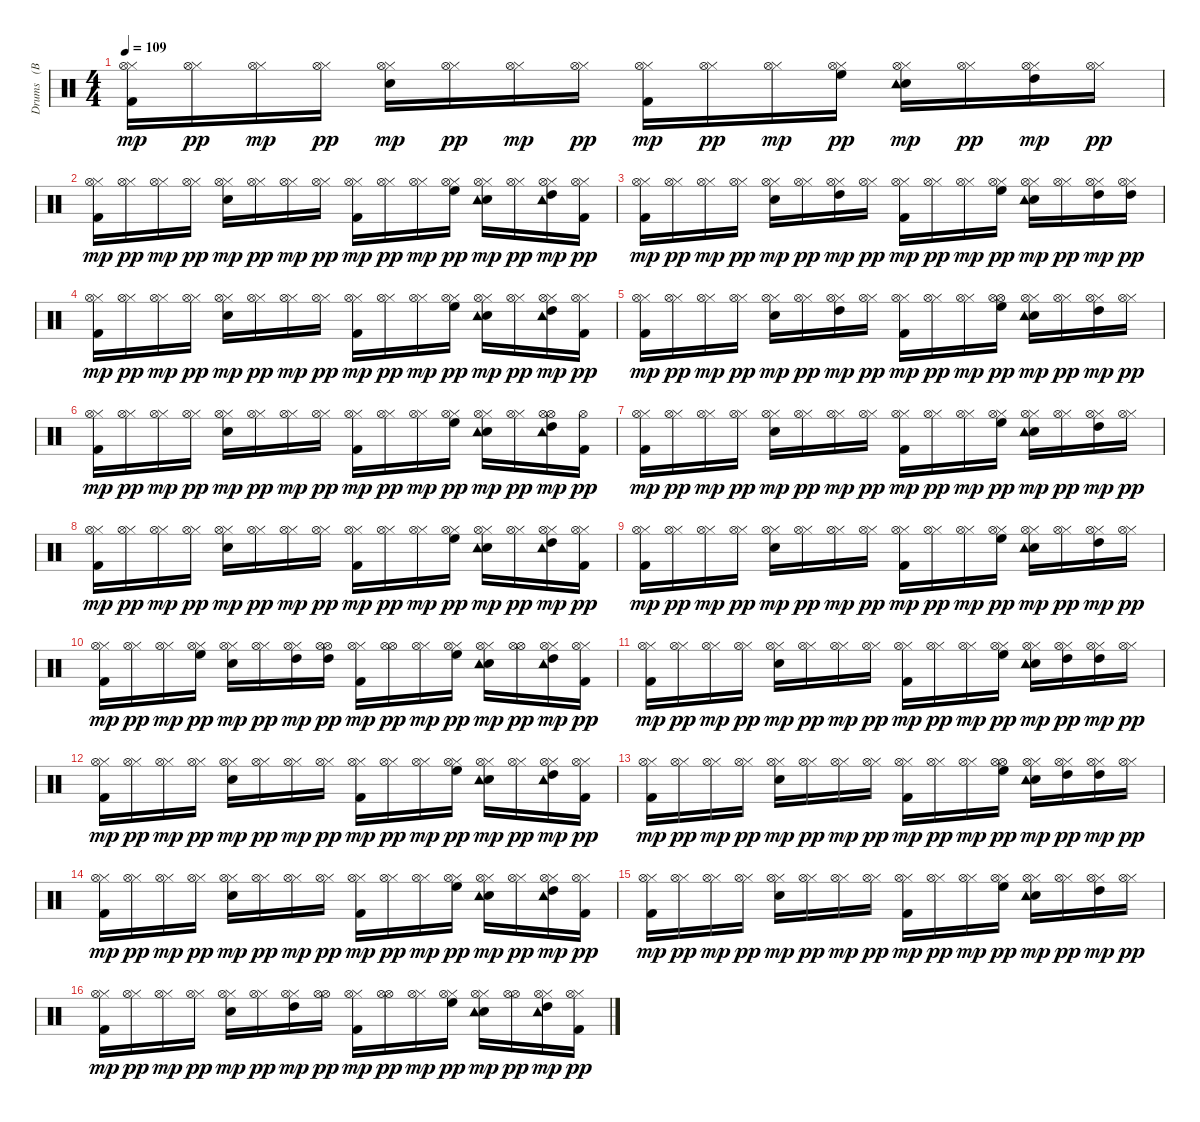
\track ("Drums   (BB)" "Drums   (B") {instrument percussion}
\staff {score}
\articulation defaults
\ts (4 4)
\tempo 109
\clef neutral
\ks c
("Kick (hit) 2" "Hi-Hat (closed)" "Hi-Hat (open)").16{dy mp} ("Hi-Hat (closed)" "Hi-Hat (open)").16{dy pp} ("Hi-Hat (closed)" "Hi-Hat (open)").16{dy mp} ("Hi-Hat (closed)" "Hi-Hat (open)").16{dy pp} ("Snare (hit) 2" "Hi-Hat (closed)" "Hi-Hat (open)").16{dy mp} ("Hi-Hat (closed)" "Hi-Hat (open)").16{dy pp} ("Hi-Hat (closed)" "Hi-Hat (open)").16{dy mp} ("Hi-Hat (closed)" "Hi-Hat (open)").16{dy pp} ("Kick (hit) 2" "Hi-Hat (closed)" "Hi-Hat (open)").16{dy mp} ("Hi-Hat (closed)" "Hi-Hat (open)").16{dy pp} ("Hi-Hat (closed)" "Hi-Hat (open)").16{dy mp} ("Hi-Hat (closed)" "High Floor Tom (hit)" "Hi-Hat (open)").16{dy pp} ("Snare (hit) 2" "Hi-Hat (closed)" "Tambourine (hit)" "Hi-Hat (open)").16{dy mp} ("Hi-Hat (closed)" "Hi-Hat (open)").16{dy pp} ("Hi-Hat (closed)" "High Tom (hit)" "Hi-Hat (open)").16{dy mp} ("Hi-Hat (closed)" "Hi-Hat (open)").16{dy pp} |
("Kick (hit) 2" "Hi-Hat (closed)" "Hi-Hat (open)").16{dy mp} ("Hi-Hat (closed)" "Hi-Hat (open)").16{dy pp} ("Hi-Hat (closed)" "Hi-Hat (open)").16{dy mp} ("Hi-Hat (closed)" "Hi-Hat (open)").16{dy pp} ("Snare (hit) 2" "Hi-Hat (closed)" "Hi-Hat (open)").16{dy mp} ("Hi-Hat (closed)" "Hi-Hat (open)").16{dy pp} ("Hi-Hat (closed)" "Hi-Hat (open)").16{dy mp} ("Hi-Hat (closed)" "Hi-Hat (open)").16{dy pp} ("Kick (hit) 2" "Hi-Hat (closed)" "Hi-Hat (open)").16{dy mp} ("Hi-Hat (closed)" "Hi-Hat (open)").16{dy pp} ("Hi-Hat (closed)" "Hi-Hat (open)").16{dy mp} ("Hi-Hat (closed)" "High Floor Tom (hit)" "Hi-Hat (open)").16{dy pp} ("Snare (hit) 2" "Hi-Hat (closed)" "Tambourine (hit)" "Hi-Hat (open)").16{dy mp} ("Hi-Hat (closed)" "Hi-Hat (open)").16{dy pp} ("Hi-Hat (closed)" "High Tom (hit)" "Tambourine (hit)" "Hi-Hat (open)").16{dy mp} ("Kick (hit) 2" "Hi-Hat (closed)" "Hi-Hat (open)").16{dy pp} |
("Kick (hit) 2" "Hi-Hat (closed)" "Hi-Hat (open)").16{dy mp} ("Hi-Hat (closed)" "Hi-Hat (open)").16{dy pp} ("Hi-Hat (closed)" "Hi-Hat (open)").16{dy mp} ("Hi-Hat (closed)" "Hi-Hat (open)").16{dy pp} ("Snare (hit) 2" "Hi-Hat (closed)" "Hi-Hat (open)").16{dy mp} ("Hi-Hat (closed)" "Hi-Hat (open)").16{dy pp} ("Hi-Hat (closed)" "High Tom (hit)" "Hi-Hat (open)").16{dy mp} ("Hi-Hat (closed)" "Hi-Hat (open)").16{dy pp} ("Kick (hit) 2" "Hi-Hat (closed)" "Hi-Hat (open)").16{dy mp} ("Hi-Hat (closed)" "Hi-Hat (open)").16{dy pp} ("Hi-Hat (closed)" "Hi-Hat (open)").16{dy mp} ("Hi-Hat (closed)" "High Floor Tom (hit)" "Hi-Hat (open)").16{dy pp} ("Snare (hit) 2" "Hi-Hat (closed)" "Tambourine (hit)" "Hi-Hat (open)").16{dy mp} ("Hi-Hat (closed)" "Hi-Hat (open)").16{dy pp} ("Hi-Hat (closed)" "High Tom (hit)" "Hi-Hat (open)").16{dy mp} ("Hi-Hat (closed)" "High Tom (hit)" "Hi-Hat (open)").16{dy pp} |
("Kick (hit) 2" "Hi-Hat (closed)" "Hi-Hat (open)").16{dy mp} ("Hi-Hat (closed)" "Hi-Hat (open)").16{dy pp} ("Hi-Hat (closed)" "Hi-Hat (open)").16{dy mp} ("Hi-Hat (closed)" "Hi-Hat (open)").16{dy pp} ("Snare (hit) 2" "Hi-Hat (closed)" "Hi-Hat (open)").16{dy mp} ("Hi-Hat (closed)" "Hi-Hat (open)").16{dy pp} ("Hi-Hat (closed)" "Hi-Hat (open)").16{dy mp} ("Hi-Hat (closed)" "Hi-Hat (open)").16{dy pp} ("Kick (hit) 2" "Hi-Hat (closed)" "Hi-Hat (open)").16{dy mp} ("Hi-Hat (closed)" "Hi-Hat (open)").16{dy pp} ("Hi-Hat (closed)" "Hi-Hat (open)").16{dy mp} ("Hi-Hat (closed)" "High Floor Tom (hit)" "Hi-Hat (open)").16{dy pp} ("Snare (hit) 2" "Hi-Hat (closed)" "Tambourine (hit)" "Hi-Hat (open)").16{dy mp} ("Hi-Hat (closed)" "Hi-Hat (open)").16{dy pp} ("Hi-Hat (closed)" "High Tom (hit)" "Tambourine (hit)" "Hi-Hat (open)").16{dy mp} ("Kick (hit) 2" "Hi-Hat (closed)" "Hi-Hat (open)").16{dy pp} |
("Kick (hit) 2" "Hi-Hat (closed)" "Hi-Hat (open)").16{dy mp} ("Hi-Hat (closed)" "Hi-Hat (open)").16{dy pp} ("Hi-Hat (closed)" "Hi-Hat (open)").16{dy mp} ("Hi-Hat (closed)" "Hi-Hat (open)").16{dy pp} ("Snare (hit) 2" "Hi-Hat (closed)" "Hi-Hat (open)").16{dy mp} ("Hi-Hat (closed)" "Hi-Hat (open)").16{dy pp} ("Hi-Hat (closed)" "High Tom (hit)" "Hi-Hat (open)").16{dy mp} ("Hi-Hat (closed)" "Hi-Hat (open)").16{dy pp} ("Kick (hit) 2" "Hi-Hat (closed)" "Hi-Hat (open)").16{dy mp} ("Hi-Hat (closed)" "Hi-Hat (open)").16{dy pp} ("Hi-Hat (closed)" "Hi-Hat (open)").16{dy mp} ("Hi-Hat (open)" "High Floor Tom (hit)" "Hi-Hat (open)").16{dy pp} ("Snare (hit) 2" "Hi-Hat (closed)" "Tambourine (hit)" "Hi-Hat (open)").16{dy mp} ("Hi-Hat (closed)" "Hi-Hat (open)").16{dy pp} ("Hi-Hat (closed)" "High Tom (hit)" "Hi-Hat (open)").16{dy mp} ("Hi-Hat (closed)" "Hi-Hat (open)").16{dy pp} |
("Kick (hit) 2" "Hi-Hat (closed)" "Hi-Hat (open)").16{dy mp} ("Hi-Hat (closed)" "Hi-Hat (open)").16{dy pp} ("Hi-Hat (closed)" "Hi-Hat (open)").16{dy mp} ("Hi-Hat (closed)" "Hi-Hat (open)").16{dy pp} ("Snare (hit) 2" "Hi-Hat (closed)" "Hi-Hat (open)").16{dy mp} ("Hi-Hat (closed)" "Hi-Hat (open)").16{dy pp} ("Hi-Hat (closed)" "Hi-Hat (open)").16{dy mp} ("Hi-Hat (closed)" "Hi-Hat (open)").16{dy pp} ("Kick (hit) 2" "Hi-Hat (closed)" "Hi-Hat (open)").16{dy mp} ("Hi-Hat (closed)" "Hi-Hat (open)").16{dy pp} ("Hi-Hat (closed)" "Hi-Hat (open)").16{dy mp} ("Hi-Hat (closed)" "High Floor Tom (hit)" "Hi-Hat (open)").16{dy pp} ("Snare (hit) 2" "Hi-Hat (closed)" "Tambourine (hit)" "Hi-Hat (open)").16{dy mp} ("Hi-Hat (closed)" "Hi-Hat (open)").16{dy pp} ("Hi-Hat (open)" "High Tom (hit)" "Tambourine (hit)" "Hi-Hat (open)").16{dy mp} ("Kick (hit) 2" "Hi-Hat (open)").16{dy pp} |
("Kick (hit) 2" "Hi-Hat (closed)" "Hi-Hat (open)").16{dy mp} ("Hi-Hat (closed)" "Hi-Hat (open)").16{dy pp} ("Hi-Hat (closed)" "Hi-Hat (open)").16{dy mp} ("Hi-Hat (closed)" "Hi-Hat (open)").16{dy pp} ("Snare (hit) 2" "Hi-Hat (closed)" "Hi-Hat (open)").16{dy mp} ("Hi-Hat (closed)" "Hi-Hat (open)").16{dy pp} ("Hi-Hat (closed)" "Hi-Hat (open)").16{dy mp} ("Hi-Hat (closed)" "Hi-Hat (open)").16{dy pp} ("Kick (hit) 2" "Hi-Hat (closed)" "Hi-Hat (open)").16{dy mp} ("Hi-Hat (closed)" "Hi-Hat (open)").16{dy pp} ("Hi-Hat (closed)" "Hi-Hat (open)").16{dy mp} ("Hi-Hat (closed)" "High Floor Tom (hit)" "Hi-Hat (open)").16{dy pp} ("Snare (hit) 2" "Hi-Hat (closed)" "Tambourine (hit)" "Hi-Hat (open)").16{dy mp} ("Hi-Hat (closed)" "Hi-Hat (open)").16{dy pp} ("Hi-Hat (closed)" "High Tom (hit)" "Hi-Hat (open)").16{dy mp} ("Hi-Hat (closed)" "Hi-Hat (open)").16{dy pp} |
("Kick (hit) 2" "Hi-Hat (closed)" "Hi-Hat (open)").16{dy mp} ("Hi-Hat (closed)" "Hi-Hat (open)").16{dy pp} ("Hi-Hat (closed)" "Hi-Hat (open)").16{dy mp} ("Hi-Hat (closed)" "Hi-Hat (open)").16{dy pp} ("Snare (hit) 2" "Hi-Hat (closed)" "Hi-Hat (open)").16{dy mp} ("Hi-Hat (closed)" "Hi-Hat (open)").16{dy pp} ("Hi-Hat (closed)" "Hi-Hat (open)").16{dy mp} ("Hi-Hat (closed)" "Hi-Hat (open)").16{dy pp} ("Kick (hit) 2" "Hi-Hat (closed)" "Hi-Hat (open)").16{dy mp} ("Hi-Hat (closed)" "Hi-Hat (open)").16{dy pp} ("Hi-Hat (closed)" "Hi-Hat (open)").16{dy mp} ("Hi-Hat (closed)" "High Floor Tom (hit)" "Hi-Hat (open)").16{dy pp} ("Snare (hit) 2" "Hi-Hat (closed)" "Tambourine (hit)" "Hi-Hat (open)").16{dy mp} ("Hi-Hat (closed)" "Hi-Hat (open)").16{dy pp} ("Hi-Hat (closed)" "High Tom (hit)" "Tambourine (hit)" "Hi-Hat (open)").16{dy mp} ("Kick (hit) 2" "Hi-Hat (closed)" "Hi-Hat (open)").16{dy pp} |
("Kick (hit) 2" "Hi-Hat (closed)" "Hi-Hat (open)").16{dy mp} ("Hi-Hat (closed)" "Hi-Hat (open)").16{dy pp} ("Hi-Hat (closed)" "Hi-Hat (open)").16{dy mp} ("Hi-Hat (closed)" "Hi-Hat (open)").16{dy pp} ("Snare (hit) 2" "Hi-Hat (closed)" "Hi-Hat (open)").16{dy mp} ("Hi-Hat (closed)" "Hi-Hat (open)").16{dy pp} ("Hi-Hat (closed)" "Hi-Hat (open)").16{dy mp} ("Hi-Hat (closed)" "Hi-Hat (open)").16{dy pp} ("Kick (hit) 2" "Hi-Hat (closed)" "Hi-Hat (open)").16{dy mp} ("Hi-Hat (closed)" "Hi-Hat (open)").16{dy pp} ("Hi-Hat (closed)" "Hi-Hat (open)").16{dy mp} ("Hi-Hat (closed)" "High Floor Tom (hit)" "Hi-Hat (open)").16{dy pp} ("Snare (hit) 2" "Hi-Hat (closed)" "Tambourine (hit)" "Hi-Hat (open)").16{dy mp} ("Hi-Hat (closed)" "Hi-Hat (open)").16{dy pp} ("Hi-Hat (closed)" "High Tom (hit)" "Hi-Hat (open)").16{dy mp} ("Hi-Hat (closed)" "Hi-Hat (open)").16{dy pp} |
("Kick (hit) 2" "Hi-Hat (closed)" "Hi-Hat (open)").16{dy mp} ("Hi-Hat (closed)" "Hi-Hat (open)").16{dy pp} ("Hi-Hat (closed)" "Hi-Hat (open)").16{dy mp} ("Hi-Hat (closed)" "High Floor Tom (hit)" "Hi-Hat (open)").16{dy pp} ("Snare (hit) 2" "Hi-Hat (closed)" "Hi-Hat (open)").16{dy mp} ("Hi-Hat (closed)" "Hi-Hat (open)").16{dy pp} ("Hi-Hat (closed)" "High Tom (hit)" "Hi-Hat (open)").16{dy mp} ("Hi-Hat (open)" "High Tom (hit)" "Hi-Hat (open)").16{dy pp} ("Kick (hit) 2" "Hi-Hat (closed)" "Hi-Hat (open)").16{dy mp} ("Hi-Hat (open)" "Hi-Hat (open)").16{dy pp} ("Hi-Hat (closed)" "Hi-Hat (open)").16{dy mp} ("Hi-Hat (closed)" "High Floor Tom (hit)" "Hi-Hat (open)").16{dy pp} ("Snare (hit) 2" "Hi-Hat (closed)" "Tambourine (hit)" "Hi-Hat (open)").16{dy mp} ("Hi-Hat (open)" "Hi-Hat (open)").16{dy pp} ("Hi-Hat (closed)" "High Tom (hit)" "Tambourine (hit)" "Hi-Hat (open)").16{dy mp} ("Kick (hit) 2" "Hi-Hat (closed)" "Hi-Hat (open)").16{dy pp} |
("Kick (hit) 2" "Hi-Hat (closed)" "Hi-Hat (open)").16{dy mp} ("Hi-Hat (closed)" "Hi-Hat (open)").16{dy pp} ("Hi-Hat (closed)" "Hi-Hat (open)").16{dy mp} ("Hi-Hat (closed)" "Hi-Hat (open)").16{dy pp} ("Snare (hit) 2" "Hi-Hat (closed)" "Hi-Hat (open)").16{dy mp} ("Hi-Hat (closed)" "Hi-Hat (open)").16{dy pp} ("Hi-Hat (closed)" "Hi-Hat (open)").16{dy mp} ("Hi-Hat (closed)" "Hi-Hat (open)").16{dy pp} ("Kick (hit) 2" "Hi-Hat (closed)" "Hi-Hat (open)").16{dy mp} ("Hi-Hat (closed)" "Hi-Hat (open)").16{dy pp} ("Hi-Hat (closed)" "Hi-Hat (open)").16{dy mp} ("Hi-Hat (closed)" "High Floor Tom (hit)" "Hi-Hat (open)").16{dy pp} ("Snare (hit) 2" "Hi-Hat (closed)" "Tambourine (hit)" "Hi-Hat (open)").16{dy mp} ("Hi-Hat (closed)" "High Tom (hit)" "Hi-Hat (open)").16{dy pp} ("Hi-Hat (closed)" "High Tom (hit)" "Hi-Hat (open)").16{dy mp} ("Hi-Hat (closed)" "Hi-Hat (open)").16{dy pp} |
("Kick (hit) 2" "Hi-Hat (closed)" "Hi-Hat (open)").16{dy mp} ("Hi-Hat (closed)" "Hi-Hat (open)").16{dy pp} ("Hi-Hat (closed)" "Hi-Hat (open)").16{dy mp} ("Hi-Hat (closed)" "Hi-Hat (open)").16{dy pp} ("Snare (hit) 2" "Hi-Hat (closed)" "Hi-Hat (open)").16{dy mp} ("Hi-Hat (closed)" "Hi-Hat (open)").16{dy pp} ("Hi-Hat (closed)" "Hi-Hat (open)").16{dy mp} ("Hi-Hat (closed)" "Hi-Hat (open)").16{dy pp} ("Kick (hit) 2" "Hi-Hat (closed)" "Hi-Hat (open)").16{dy mp} ("Hi-Hat (closed)" "Hi-Hat (open)").16{dy pp} ("Hi-Hat (closed)" "Hi-Hat (open)").16{dy mp} ("Hi-Hat (closed)" "High Floor Tom (hit)" "Hi-Hat (open)").16{dy pp} ("Snare (hit) 2" "Hi-Hat (closed)" "Tambourine (hit)" "Hi-Hat (open)").16{dy mp} ("Hi-Hat (closed)" "Hi-Hat (open)").16{dy pp} ("Hi-Hat (closed)" "High Tom (hit)" "Tambourine (hit)" "Hi-Hat (open)").16{dy mp} ("Kick (hit) 2" "Hi-Hat (closed)" "Hi-Hat (open)").16{dy pp} |
("Kick (hit) 2" "Hi-Hat (closed)" "Hi-Hat (open)").16{dy mp} ("Hi-Hat (closed)" "Hi-Hat (open)").16{dy pp} ("Hi-Hat (closed)" "Hi-Hat (open)").16{dy mp} ("Hi-Hat (closed)" "Hi-Hat (open)").16{dy pp} ("Snare (hit) 2" "Hi-Hat (closed)" "Hi-Hat (open)").16{dy mp} ("Hi-Hat (closed)" "Hi-Hat (open)").16{dy pp} ("Hi-Hat (closed)" "Hi-Hat (open)").16{dy mp} ("Hi-Hat (closed)" "Hi-Hat (open)").16{dy pp} ("Kick (hit) 2" "Hi-Hat (closed)" "Hi-Hat (open)").16{dy mp} ("Hi-Hat (closed)" "Hi-Hat (open)").16{dy pp} ("Hi-Hat (closed)" "Hi-Hat (open)").16{dy mp} ("Hi-Hat (open)" "High Floor Tom (hit)" "Hi-Hat (open)").16{dy pp} ("Snare (hit) 2" "Hi-Hat (closed)" "Tambourine (hit)" "Hi-Hat (open)").16{dy mp} ("Hi-Hat (closed)" "High Tom (hit)" "Hi-Hat (open)").16{dy pp} ("Hi-Hat (closed)" "High Tom (hit)" "Hi-Hat (open)").16{dy mp} ("Hi-Hat (closed)" "Hi-Hat (open)").16{dy pp} |
("Kick (hit) 2" "Hi-Hat (closed)" "Hi-Hat (open)").16{dy mp} ("Hi-Hat (closed)" "Hi-Hat (open)").16{dy pp} ("Hi-Hat (closed)" "Hi-Hat (open)").16{dy mp} ("Hi-Hat (closed)" "Hi-Hat (open)").16{dy pp} ("Snare (hit) 2" "Hi-Hat (closed)" "Hi-Hat (open)").16{dy mp} ("Hi-Hat (closed)" "Hi-Hat (open)").16{dy pp} ("Hi-Hat (closed)" "Hi-Hat (open)").16{dy mp} ("Hi-Hat (closed)" "Hi-Hat (open)").16{dy pp} ("Kick (hit) 2" "Hi-Hat (closed)" "Hi-Hat (open)").16{dy mp} ("Hi-Hat (closed)" "Hi-Hat (open)").16{dy pp} ("Hi-Hat (closed)" "Hi-Hat (open)").16{dy mp} ("Hi-Hat (closed)" "High Floor Tom (hit)" "Hi-Hat (open)").16{dy pp} ("Snare (hit) 2" "Hi-Hat (closed)" "Tambourine (hit)" "Hi-Hat (open)").16{dy mp} ("Hi-Hat (closed)" "Hi-Hat (open)").16{dy pp} ("Hi-Hat (closed)" "High Tom (hit)" "Tambourine (hit)" "Hi-Hat (open)").16{dy mp} ("Kick (hit) 2" "Hi-Hat (closed)" "Hi-Hat (open)").16{dy pp} |
("Kick (hit) 2" "Hi-Hat (closed)" "Hi-Hat (open)").16{dy mp} ("Hi-Hat (closed)" "Hi-Hat (open)").16{dy pp} ("Hi-Hat (closed)" "Hi-Hat (open)").16{dy mp} ("Hi-Hat (closed)" "Hi-Hat (open)").16{dy pp} ("Snare (hit) 2" "Hi-Hat (closed)" "Hi-Hat (open)").16{dy mp} ("Hi-Hat (closed)" "Hi-Hat (open)").16{dy pp} ("Hi-Hat (closed)" "Hi-Hat (open)").16{dy mp} ("Hi-Hat (closed)" "Hi-Hat (open)").16{dy pp} ("Kick (hit) 2" "Hi-Hat (closed)" "Hi-Hat (open)").16{dy mp} ("Hi-Hat (closed)" "Hi-Hat (open)").16{dy pp} ("Hi-Hat (closed)" "Hi-Hat (open)").16{dy mp} ("Hi-Hat (closed)" "High Floor Tom (hit)" "Hi-Hat (open)").16{dy pp} ("Snare (hit) 2" "Hi-Hat (closed)" "Tambourine (hit)" "Hi-Hat (open)").16{dy mp} ("Hi-Hat (closed)" "Hi-Hat (open)").16{dy pp} ("Hi-Hat (closed)" "High Tom (hit)" "Hi-Hat (open)").16{dy mp} ("Hi-Hat (closed)" "Hi-Hat (open)").16{dy pp} |
("Kick (hit) 2" "Hi-Hat (closed)" "Hi-Hat (open)").16{dy mp} ("Hi-Hat (closed)" "Hi-Hat (open)").16{dy pp} ("Hi-Hat (closed)" "Hi-Hat (open)").16{dy mp} ("Hi-Hat (closed)" "Hi-Hat (open)").16{dy pp} ("Snare (hit) 2" "Hi-Hat (closed)" "Hi-Hat (open)").16{dy mp} ("Hi-Hat (closed)" "Hi-Hat (open)").16{dy pp} ("Hi-Hat (closed)" "High Tom (hit)" "Hi-Hat (open)").16{dy mp} ("Hi-Hat (open)" "Hi-Hat (open)").16{dy pp} ("Kick (hit) 2" "Hi-Hat (closed)" "Hi-Hat (open)").16{dy mp} ("Hi-Hat (open)" "Hi-Hat (open)").16{dy pp} ("Hi-Hat (closed)" "Hi-Hat (open)").16{dy mp} ("Hi-Hat (closed)" "High Floor Tom (hit)" "Hi-Hat (open)").16{dy pp} ("Snare (hit) 2" "Hi-Hat (closed)" "Tambourine (hit)" "Hi-Hat (open)").16{dy mp} ("Hi-Hat (open)" "Hi-Hat (open)").16{dy pp} ("Hi-Hat (closed)" "High Tom (hit)" "Tambourine (hit)" "Hi-Hat (open)").16{dy mp} ("Kick (hit) 2" "Hi-Hat (closed)" "Hi-Hat (open)").16{dy pp}
